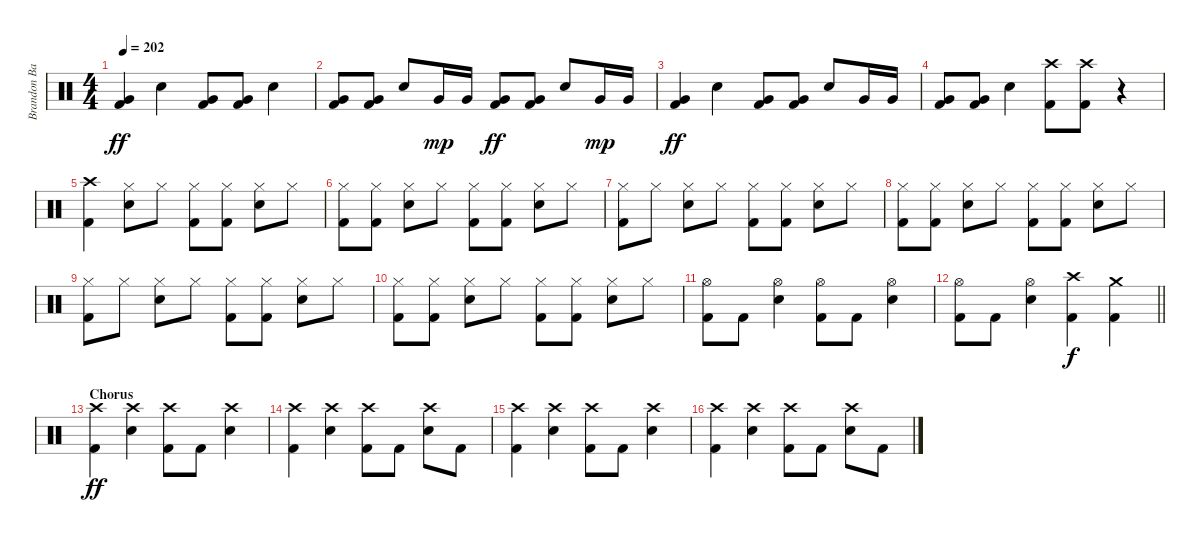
\track ("Brandon Barnes - Drums" "Brandon Ba") {instrument percussion}
\staff {score}
\articulation defaults
\ts (4 4)
\tempo 202
\clef neutral
\ks c
("Kick (hit) 2" "Very Low Tom (hit)").4{dy ff} "Snare (hit) 2".4 ("Kick (hit) 2" "Very Low Tom (hit)").8 ("Kick (hit) 2" "Very Low Tom (hit)").8 "Snare (hit) 2".4 |
("Kick (hit) 2" "Very Low Tom (hit)").8 ("Kick (hit) 2" "Very Low Tom (hit)").8 "Snare (hit) 2".8 "Very Low Tom (hit)".16{dy mp} "Very Low Tom (hit)".16 ("Kick (hit) 2" "Very Low Tom (hit)").8{dy ff} ("Kick (hit) 2" "Very Low Tom (hit)").8 "Snare (hit) 2".8 "Very Low Tom (hit)".16{dy mp} "Very Low Tom (hit)".16 |
("Kick (hit) 2" "Very Low Tom (hit)").4{dy ff} "Snare (hit) 2".4 ("Kick (hit) 2" "Very Low Tom (hit)").8 ("Kick (hit) 2" "Very Low Tom (hit)").8 "Snare (hit) 2".8 "Very Low Tom (hit)".16 "Very Low Tom (hit)".16 |
("Kick (hit) 2" "Very Low Tom (hit)").8 ("Kick (hit) 2" "Very Low Tom (hit)").8 "Snare (hit) 2".4 ("Kick (hit) 2" "Crash high (hit)").8 ("Kick (hit) 2" "Crash high (hit)").8 r.4 |
("Crash high (hit)" "Kick (hit) 2").4 ("Snare (hit) 2" "Hi-Hat (closed)").8 "Hi-Hat (closed)".8 ("Kick (hit) 2" "Hi-Hat (closed)").8 ("Kick (hit) 2" "Hi-Hat (closed)").8 ("Snare (hit) 2" "Hi-Hat (closed)").8 "Hi-Hat (closed)".8 |
("Kick (hit) 2" "Hi-Hat (closed)").8 ("Kick (hit) 2" "Hi-Hat (closed)").8 ("Snare (hit) 2" "Hi-Hat (closed)").8 "Hi-Hat (closed)".8 ("Kick (hit) 2" "Hi-Hat (closed)").8 ("Kick (hit) 2" "Hi-Hat (closed)").8 ("Snare (hit) 2" "Hi-Hat (closed)").8 "Hi-Hat (closed)".8 |
("Kick (hit) 2" "Hi-Hat (closed)").8 "Hi-Hat (closed)".8 ("Snare (hit) 2" "Hi-Hat (closed)").8 "Hi-Hat (closed)".8 ("Kick (hit) 2" "Hi-Hat (closed)").8 ("Kick (hit) 2" "Hi-Hat (closed)").8 ("Snare (hit) 2" "Hi-Hat (closed)").8 "Hi-Hat (closed)".8 |
("Kick (hit) 2" "Hi-Hat (closed)").8 ("Kick (hit) 2" "Hi-Hat (closed)").8 ("Snare (hit) 2" "Hi-Hat (closed)").8 "Hi-Hat (closed)".8 ("Kick (hit) 2" "Hi-Hat (closed)").8 ("Kick (hit) 2" "Hi-Hat (closed)").8 ("Snare (hit) 2" "Hi-Hat (closed)").8 "Hi-Hat (closed)".8 |
("Kick (hit) 2" "Hi-Hat (closed)").8 "Hi-Hat (closed)".8 ("Snare (hit) 2" "Hi-Hat (closed)").8 "Hi-Hat (closed)".8 ("Kick (hit) 2" "Hi-Hat (closed)").8 ("Kick (hit) 2" "Hi-Hat (closed)").8 ("Snare (hit) 2" "Hi-Hat (closed)").8 "Hi-Hat (closed)".8 |
("Kick (hit) 2" "Hi-Hat (closed)").8 ("Kick (hit) 2" "Hi-Hat (closed)").8 ("Snare (hit) 2" "Hi-Hat (closed)").8 "Hi-Hat (closed)".8 ("Kick (hit) 2" "Hi-Hat (closed)").8 ("Kick (hit) 2" "Hi-Hat (closed)").8 ("Snare (hit) 2" "Hi-Hat (closed)").8 "Hi-Hat (closed)".8 |
("Kick (hit) 2" "Hi-Hat (open)").8 "Kick (hit) 2".8 ("Snare (hit) 2" "Hi-Hat (open)").4 ("Kick (hit) 2" "Hi-Hat (open)").8 "Kick (hit) 2".8 ("Snare (hit) 2" "Hi-Hat (open)").4 |
\barLineRight lightlight
("Kick (hit) 2" "Hi-Hat (open)").8 "Kick (hit) 2".8 ("Snare (hit) 2" "Hi-Hat (open)").4 ("Crash high (hit)" "Kick (hit) 2").4{dy f} ("Crash medium (hit)" "Kick (hit) 2").4 |
\section ("" "Chorus")
("Kick (hit) 2" "Crash high (hit)").4{dy ff} ("Snare (hit) 2" "Crash high (hit)").4 ("Kick (hit) 2" "Crash high (hit)").8 "Kick (hit) 2".8 ("Snare (hit) 2" "Crash high (hit)").4 |
("Kick (hit) 2" "Crash high (hit)").4 ("Snare (hit) 2" "Crash high (hit)").4 ("Kick (hit) 2" "Crash high (hit)").8 "Kick (hit) 2".8 ("Snare (hit) 2" "Crash high (hit)").8 "Kick (hit) 2".8 |
("Kick (hit) 2" "Crash high (hit)").4 ("Snare (hit) 2" "Crash high (hit)").4 ("Kick (hit) 2" "Crash high (hit)").8 "Kick (hit) 2".8 ("Snare (hit) 2" "Crash high (hit)").4 |
("Kick (hit) 2" "Crash high (hit)").4 ("Snare (hit) 2" "Crash high (hit)").4 ("Kick (hit) 2" "Crash high (hit)").8 "Kick (hit) 2".8 ("Snare (hit) 2" "Crash high (hit)").8 "Kick (hit) 2".8
